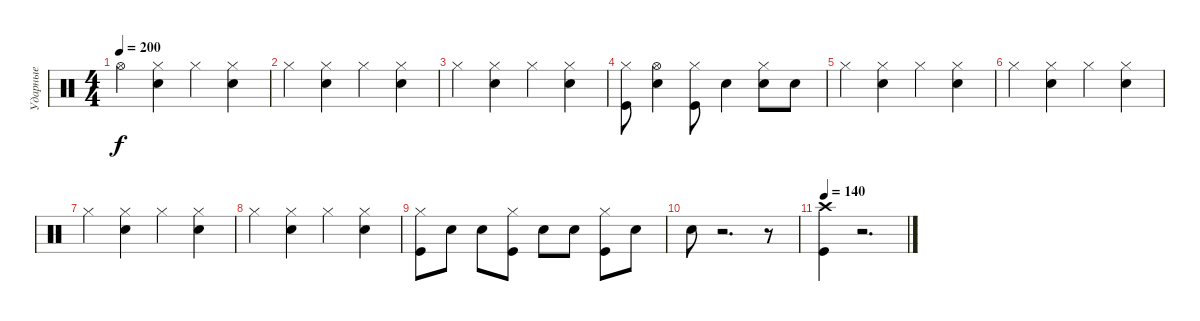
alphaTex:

\track ("Ударные" "Ударные") {instrument percussion}
\staff {score}
\articulation defaults
\ts (4 4)
\tempo 200
\clef neutral
\ks c "Hi-Hat (open)".4{dy f}
("Snare (hit) 2" "Hi-Hat (closed)").4 "Hi-Hat (closed)".4 ("Snare (hit) 2" "Hi-Hat (closed)").4 |
"Hi-Hat (closed)".4 ("Snare (hit) 2" "Hi-Hat (closed)").4 "Hi-Hat (closed)".4 ("Snare (hit) 2" "Hi-Hat (closed)").4 |
"Hi-Hat (closed)".4 ("Snare (hit) 2" "Hi-Hat (closed)").4 "Hi-Hat (closed)".4 ("Snare (hit) 2" "Hi-Hat (closed)").4 |
("Kick (hit)" "Hi-Hat (closed)").8 ("Hi-Hat (open)" "Electric Snare (hit)").4 ("Kick (hit)" "Hi-Hat (closed)").8 "Electric Snare (hit)".4 ("Electric Snare (hit)" "Hi-Hat (closed)").8 "Electric Snare (hit)".8 |
"Hi-Hat (closed)".4 ("Snare (hit) 2" "Hi-Hat (closed)").4 "Hi-Hat (closed)".4 ("Snare (hit) 2" "Hi-Hat (closed)").4 |
"Hi-Hat (closed)".4 ("Snare (hit) 2" "Hi-Hat (closed)").4 "Hi-Hat (closed)".4 ("Snare (hit) 2" "Hi-Hat (closed)").4 |
"Hi-Hat (closed)".4 ("Snare (hit) 2" "Hi-Hat (closed)").4 "Hi-Hat (closed)".4 ("Snare (hit) 2" "Hi-Hat (closed)").4 |
"Hi-Hat (closed)".4 ("Snare (hit) 2" "Hi-Hat (closed)").4 "Hi-Hat (closed)".4 ("Snare (hit) 2" "Hi-Hat (closed)").4 |
("Hi-Hat (closed)" "Kick (hit)").8 "Electric Snare (hit)".8 "Electric Snare (hit)".8 ("Hi-Hat (closed)" "Kick (hit)").8 "Electric Snare (hit)".8 "Electric Snare (hit)".8 ("Hi-Hat (closed)" "Kick (hit)").8 "Electric Snare (hit)".8 |
"Electric Snare (hit)".8 r.2{d} r.8 |
\tempo 140
("Crash high (hit)" "Kick (hit)").4 r.2{d}
